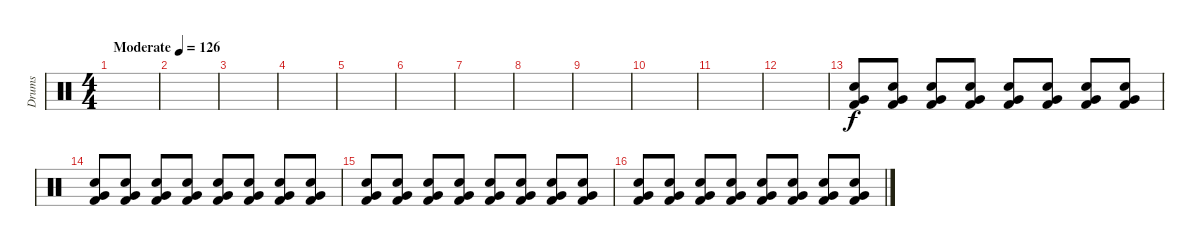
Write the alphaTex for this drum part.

\track ("Drums" "Drums") {instrument percussion}
\staff {score}
\articulation defaults
\ts (4 4)
\tempo (126 "Moderate")
\clef neutral
\ks c
|
|
|
|
|
|
|
|
|
|
|
|
("Very Low Tom (hit)" "Electric Snare (hit)" "Kick (hit) 2").8{volume 13} ("Very Low Tom (hit)" "Electric Snare (hit)" "Kick (hit) 2").8 ("Very Low Tom (hit)" "Electric Snare (hit)" "Kick (hit) 2").8 ("Very Low Tom (hit)" "Electric Snare (hit)" "Kick (hit) 2").8 ("Very Low Tom (hit)" "Electric Snare (hit)" "Kick (hit) 2").8 ("Very Low Tom (hit)" "Electric Snare (hit)" "Kick (hit) 2").8 ("Very Low Tom (hit)" "Electric Snare (hit)" "Kick (hit) 2").8 ("Very Low Tom (hit)" "Electric Snare (hit)" "Kick (hit) 2").8 |
("Very Low Tom (hit)" "Electric Snare (hit)" "Kick (hit) 2").8 ("Very Low Tom (hit)" "Electric Snare (hit)" "Kick (hit) 2").8 ("Very Low Tom (hit)" "Electric Snare (hit)" "Kick (hit) 2").8 ("Very Low Tom (hit)" "Electric Snare (hit)" "Kick (hit) 2").8 ("Very Low Tom (hit)" "Electric Snare (hit)" "Kick (hit) 2").8 ("Very Low Tom (hit)" "Electric Snare (hit)" "Kick (hit) 2").8 ("Very Low Tom (hit)" "Electric Snare (hit)" "Kick (hit) 2").8 ("Very Low Tom (hit)" "Electric Snare (hit)" "Kick (hit) 2").8 |
("Very Low Tom (hit)" "Electric Snare (hit)" "Kick (hit) 2").8 ("Very Low Tom (hit)" "Electric Snare (hit)" "Kick (hit) 2").8 ("Very Low Tom (hit)" "Electric Snare (hit)" "Kick (hit) 2").8 ("Very Low Tom (hit)" "Electric Snare (hit)" "Kick (hit) 2").8 ("Very Low Tom (hit)" "Electric Snare (hit)" "Kick (hit) 2").8 ("Very Low Tom (hit)" "Electric Snare (hit)" "Kick (hit) 2").8 ("Very Low Tom (hit)" "Electric Snare (hit)" "Kick (hit) 2").8 ("Very Low Tom (hit)" "Electric Snare (hit)" "Kick (hit) 2").8 |
("Very Low Tom (hit)" "Electric Snare (hit)" "Kick (hit) 2").8 ("Very Low Tom (hit)" "Electric Snare (hit)" "Kick (hit) 2").8 ("Very Low Tom (hit)" "Electric Snare (hit)" "Kick (hit) 2").8 ("Very Low Tom (hit)" "Electric Snare (hit)" "Kick (hit) 2").8 ("Very Low Tom (hit)" "Electric Snare (hit)" "Kick (hit) 2").8 ("Very Low Tom (hit)" "Electric Snare (hit)" "Kick (hit) 2").8 ("Very Low Tom (hit)" "Electric Snare (hit)" "Kick (hit) 2").8 ("Very Low Tom (hit)" "Electric Snare (hit)" "Kick (hit) 2").8
